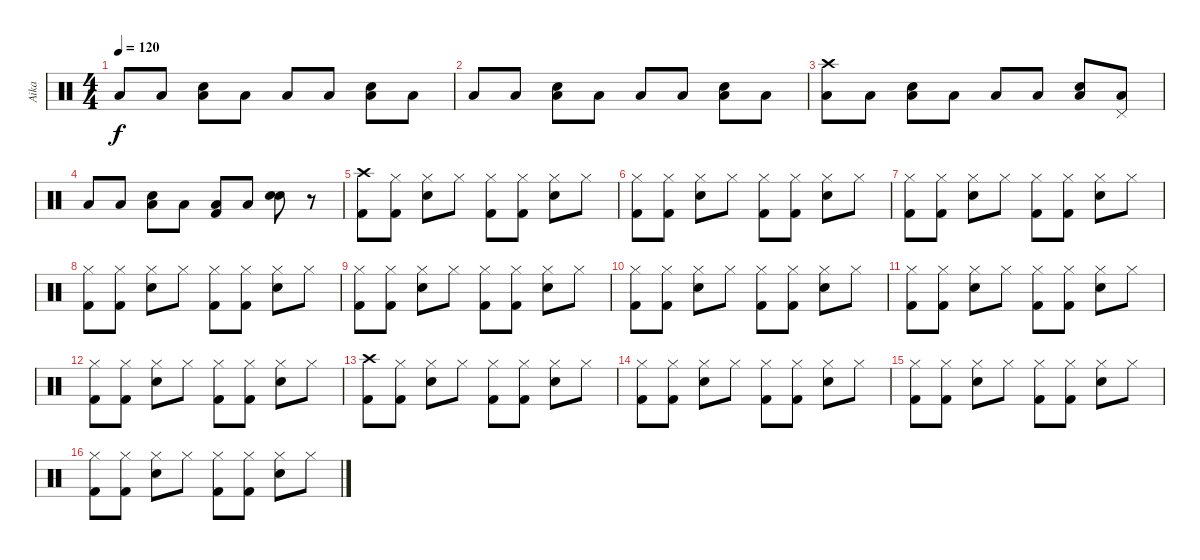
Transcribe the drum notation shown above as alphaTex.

\track ("Aika" "Aika") {instrument percussion}
\staff {score}
\articulation defaults
\ts (4 4)
\tempo 120
\clef neutral
\ks c "Low Floor Tom (hit)".8{dy f} "Low Floor Tom (hit)".8
("Low Floor Tom (hit)" "Snare (hit) 2").8 "Low Floor Tom (hit)".8 "Low Floor Tom (hit)".8 "Low Floor Tom (hit)".8 ("Low Floor Tom (hit)" "Snare (hit) 2").8 "Low Floor Tom (hit)".8 |
"Low Floor Tom (hit)".8 "Low Floor Tom (hit)".8 ("Low Floor Tom (hit)" "Snare (hit) 2").8 "Low Floor Tom (hit)".8 "Low Floor Tom (hit)".8 "Low Floor Tom (hit)".8 ("Low Floor Tom (hit)" "Snare (hit) 2").8 "Low Floor Tom (hit)".8 |
("Crash high (hit)" "Low Floor Tom (hit)").8 "Low Floor Tom (hit)".8 ("Low Floor Tom (hit)" "Snare (hit) 2").8 "Low Floor Tom (hit)".8 "Low Floor Tom (hit)".8 "Low Floor Tom (hit)".8 ("Low Floor Tom (hit)" "Snare (hit) 2").8 ("Pedal Hi-Hat (hit)" "Low Floor Tom (hit)").8 |
"Low Floor Tom (hit)".8 "Low Floor Tom (hit)".8 ("Low Floor Tom (hit)" "Snare (hit) 2").8 "Low Floor Tom (hit)".8 ("Low Floor Tom (hit)" "Kick (hit) 2").8 "Low Floor Tom (hit)".8 ("Snare (hit) 2" "Snare (hit) 2").8 r.8 |
("Crash high (hit)" "Kick (hit) 2").8 ("Hi-Hat (closed)" "Kick (hit) 2").8 ("Hi-Hat (closed)" "Snare (hit) 2").8 "Hi-Hat (closed)".8 ("Hi-Hat (closed)" "Kick (hit) 2").8 ("Hi-Hat (closed)" "Kick (hit) 2").8 ("Hi-Hat (closed)" "Snare (hit) 2").8 "Hi-Hat (closed)".8 |
("Hi-Hat (closed)" "Kick (hit) 2").8 ("Hi-Hat (closed)" "Kick (hit) 2").8 ("Hi-Hat (closed)" "Snare (hit) 2").8 "Hi-Hat (closed)".8 ("Hi-Hat (closed)" "Kick (hit) 2").8 ("Hi-Hat (closed)" "Kick (hit) 2").8 ("Hi-Hat (closed)" "Snare (hit) 2").8 "Hi-Hat (closed)".8 |
("Hi-Hat (closed)" "Kick (hit) 2").8 ("Hi-Hat (closed)" "Kick (hit) 2").8 ("Hi-Hat (closed)" "Snare (hit) 2").8 "Hi-Hat (closed)".8 ("Hi-Hat (closed)" "Kick (hit) 2").8 ("Hi-Hat (closed)" "Kick (hit) 2").8 ("Hi-Hat (closed)" "Snare (hit) 2").8 "Hi-Hat (closed)".8 |
("Hi-Hat (closed)" "Kick (hit) 2").8 ("Hi-Hat (closed)" "Kick (hit) 2").8 ("Hi-Hat (closed)" "Snare (hit) 2").8 "Hi-Hat (closed)".8 ("Hi-Hat (closed)" "Kick (hit) 2").8 ("Hi-Hat (closed)" "Kick (hit) 2").8 ("Hi-Hat (closed)" "Snare (hit) 2").8 "Hi-Hat (closed)".8 |
("Hi-Hat (closed)" "Kick (hit) 2").8 ("Hi-Hat (closed)" "Kick (hit) 2").8 ("Hi-Hat (closed)" "Snare (hit) 2").8 "Hi-Hat (closed)".8 ("Hi-Hat (closed)" "Kick (hit) 2").8 ("Hi-Hat (closed)" "Kick (hit) 2").8 ("Hi-Hat (closed)" "Snare (hit) 2").8 "Hi-Hat (closed)".8 |
("Hi-Hat (closed)" "Kick (hit) 2").8 ("Hi-Hat (closed)" "Kick (hit) 2").8 ("Hi-Hat (closed)" "Snare (hit) 2").8 "Hi-Hat (closed)".8 ("Hi-Hat (closed)" "Kick (hit) 2").8 ("Hi-Hat (closed)" "Kick (hit) 2").8 ("Hi-Hat (closed)" "Snare (hit) 2").8 "Hi-Hat (closed)".8 |
("Hi-Hat (closed)" "Kick (hit) 2").8 ("Hi-Hat (closed)" "Kick (hit) 2").8 ("Hi-Hat (closed)" "Snare (hit) 2").8 "Hi-Hat (closed)".8 ("Hi-Hat (closed)" "Kick (hit) 2").8 ("Hi-Hat (closed)" "Kick (hit) 2").8 ("Hi-Hat (closed)" "Snare (hit) 2").8 "Hi-Hat (closed)".8 |
("Hi-Hat (closed)" "Kick (hit) 2").8 ("Hi-Hat (closed)" "Kick (hit) 2").8 ("Hi-Hat (closed)" "Snare (hit) 2").8 "Hi-Hat (closed)".8 ("Hi-Hat (closed)" "Kick (hit) 2").8 ("Hi-Hat (closed)" "Kick (hit) 2").8 ("Hi-Hat (closed)" "Snare (hit) 2").8 "Hi-Hat (closed)".8 |
("Crash high (hit)" "Kick (hit) 2").8 ("Hi-Hat (closed)" "Kick (hit) 2").8 ("Hi-Hat (closed)" "Snare (hit) 2").8 "Hi-Hat (closed)".8 ("Hi-Hat (closed)" "Kick (hit) 2").8 ("Hi-Hat (closed)" "Kick (hit) 2").8 ("Hi-Hat (closed)" "Snare (hit) 2").8 "Hi-Hat (closed)".8 |
("Hi-Hat (closed)" "Kick (hit) 2").8 ("Hi-Hat (closed)" "Kick (hit) 2").8 ("Hi-Hat (closed)" "Snare (hit) 2").8 "Hi-Hat (closed)".8 ("Hi-Hat (closed)" "Kick (hit) 2").8 ("Hi-Hat (closed)" "Kick (hit) 2").8 ("Hi-Hat (closed)" "Snare (hit) 2").8 "Hi-Hat (closed)".8 |
("Hi-Hat (closed)" "Kick (hit) 2").8 ("Hi-Hat (closed)" "Kick (hit) 2").8 ("Hi-Hat (closed)" "Snare (hit) 2").8 "Hi-Hat (closed)".8 ("Hi-Hat (closed)" "Kick (hit) 2").8 ("Hi-Hat (closed)" "Kick (hit) 2").8 ("Hi-Hat (closed)" "Snare (hit) 2").8 "Hi-Hat (closed)".8 |
("Hi-Hat (closed)" "Kick (hit) 2").8 ("Hi-Hat (closed)" "Kick (hit) 2").8 ("Hi-Hat (closed)" "Snare (hit) 2").8 "Hi-Hat (closed)".8 ("Hi-Hat (closed)" "Kick (hit) 2").8 ("Hi-Hat (closed)" "Kick (hit) 2").8 ("Hi-Hat (closed)" "Snare (hit) 2").8 "Hi-Hat (closed)".8
